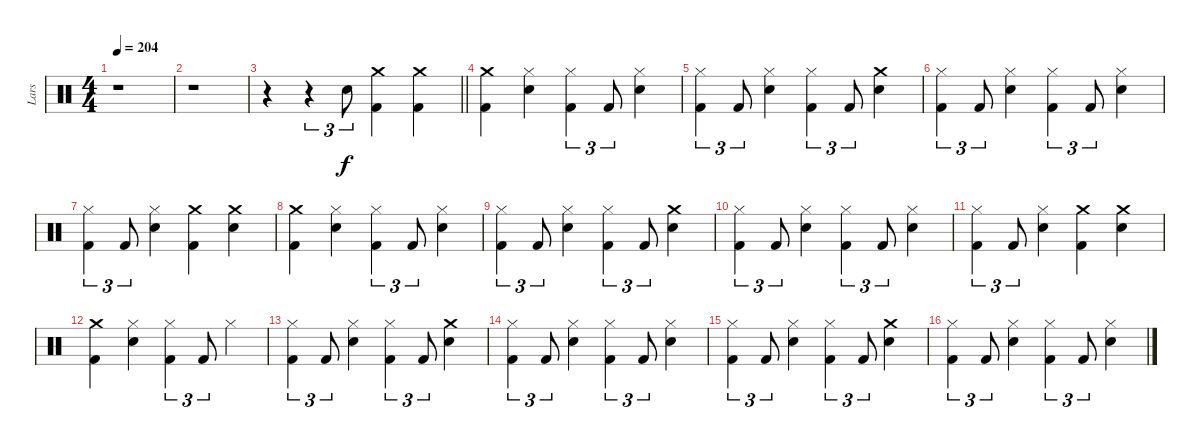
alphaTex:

\track ("Lars" "Lars") {instrument percussion}
\staff {score}
\articulation defaults
\ts (4 4)
\tempo 204
\clef neutral
\ks c
r.1{dy f} |
r.1 |
\barLineRight lightlight
r.4 r.4{tu (3 2)} "Snare (hit) 2".8{tu (3 2)} ("Kick (hit) 2" "Crash medium (hit)").4 ("Kick (hit) 2" "Crash medium (hit)").4 |
("Kick (hit) 2" "Crash medium (hit)").4 ("Hi-Hat (closed)" "Snare (hit) 2").4 ("Kick (hit) 2" "Hi-Hat (closed)").4{tu (3 2)} "Kick (hit) 2".8{tu (3 2)} ("Snare (hit) 2" "Hi-Hat (closed)").4 |
("Hi-Hat (closed)" "Kick (hit) 2").4{tu (3 2)} "Kick (hit) 2".8{tu (3 2)} ("Snare (hit) 2" "Hi-Hat (closed)").4 ("Hi-Hat (closed)" "Kick (hit) 2").4{tu (3 2)} "Kick (hit) 2".8{tu (3 2)} ("Crash medium (hit)" "Snare (hit) 2").4 |
("Hi-Hat (closed)" "Kick (hit) 2").4{tu (3 2)} "Kick (hit) 2".8{tu (3 2)} ("Snare (hit) 2" "Hi-Hat (closed)").4 ("Hi-Hat (closed)" "Kick (hit) 2").4{tu (3 2)} "Kick (hit) 2".8{tu (3 2)} ("Snare (hit) 2" "Hi-Hat (closed)").4 |
("Hi-Hat (closed)" "Kick (hit) 2").4{tu (3 2)} "Kick (hit) 2".8{tu (3 2)} ("Snare (hit) 2" "Hi-Hat (closed)").4 ("Crash medium (hit)" "Kick (hit) 2").4 ("Crash medium (hit)" "Snare (hit) 2").4 |
("Kick (hit) 2" "Crash medium (hit)").4 ("Hi-Hat (closed)" "Snare (hit) 2").4 ("Kick (hit) 2" "Hi-Hat (closed)").4{tu (3 2)} "Kick (hit) 2".8{tu (3 2)} ("Snare (hit) 2" "Hi-Hat (closed)").4 |
("Hi-Hat (closed)" "Kick (hit) 2").4{tu (3 2)} "Kick (hit) 2".8{tu (3 2)} ("Snare (hit) 2" "Hi-Hat (closed)").4 ("Hi-Hat (closed)" "Kick (hit) 2").4{tu (3 2)} "Kick (hit) 2".8{tu (3 2)} ("Crash medium (hit)" "Snare (hit) 2").4 |
("Hi-Hat (closed)" "Kick (hit) 2").4{tu (3 2)} "Kick (hit) 2".8{tu (3 2)} ("Snare (hit) 2" "Hi-Hat (closed)").4 ("Hi-Hat (closed)" "Kick (hit) 2").4{tu (3 2)} "Kick (hit) 2".8{tu (3 2)} ("Snare (hit) 2" "Hi-Hat (closed)").4 |
("Hi-Hat (closed)" "Kick (hit) 2").4{tu (3 2)} "Kick (hit) 2".8{tu (3 2)} ("Snare (hit) 2" "Hi-Hat (closed)").4 ("Crash medium (hit)" "Kick (hit) 2").4 ("Crash medium (hit)" "Snare (hit) 2").4 |
("Kick (hit) 2" "Crash medium (hit)").4 ("Hi-Hat (closed)" "Snare (hit) 2").4 ("Kick (hit) 2" "Hi-Hat (closed)").4{tu (3 2)} "Kick (hit) 2".8{tu (3 2)} "Hi-Hat (closed)".4 |
("Hi-Hat (closed)" "Kick (hit) 2").4{tu (3 2)} "Kick (hit) 2".8{tu (3 2)} ("Snare (hit) 2" "Hi-Hat (closed)").4 ("Hi-Hat (closed)" "Kick (hit) 2").4{tu (3 2)} "Kick (hit) 2".8{tu (3 2)} ("Crash medium (hit)" "Snare (hit) 2").4 |
("Hi-Hat (closed)" "Kick (hit) 2").4{tu (3 2)} "Kick (hit) 2".8{tu (3 2)} ("Snare (hit) 2" "Hi-Hat (closed)").4 ("Hi-Hat (closed)" "Kick (hit) 2").4{tu (3 2)} "Kick (hit) 2".8{tu (3 2)} ("Snare (hit) 2" "Hi-Hat (closed)").4 |
("Hi-Hat (closed)" "Kick (hit) 2").4{tu (3 2)} "Kick (hit) 2".8{tu (3 2)} ("Snare (hit) 2" "Hi-Hat (closed)").4 ("Hi-Hat (closed)" "Kick (hit) 2").4{tu (3 2)} "Kick (hit) 2".8{tu (3 2)} ("Crash medium (hit)" "Snare (hit) 2").4 |
("Hi-Hat (closed)" "Kick (hit) 2").4{tu (3 2)} "Kick (hit) 2".8{tu (3 2)} ("Snare (hit) 2" "Hi-Hat (closed)").4 ("Hi-Hat (closed)" "Kick (hit) 2").4{tu (3 2)} "Kick (hit) 2".8{tu (3 2)} ("Snare (hit) 2" "Hi-Hat (closed)").4
